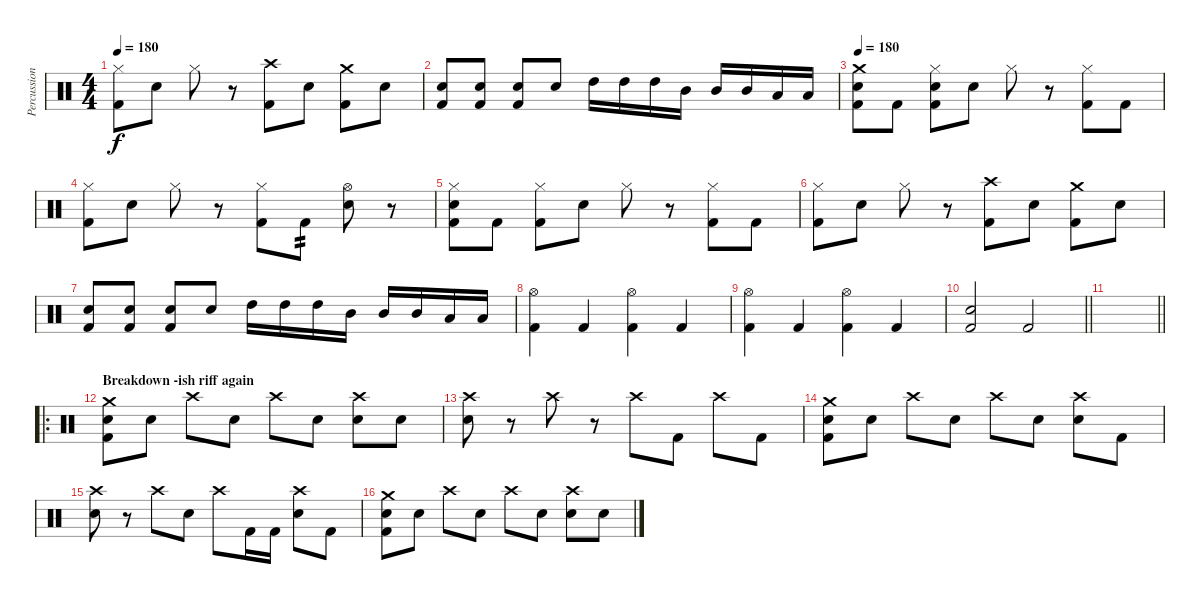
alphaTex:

\track ("Percussion" "Percussion") {instrument percussion}
\staff {score}
\articulation defaults
\ts (4 4)
\tempo 180
\clef neutral
\ks c
("Hi-Hat (closed)" "Kick (hit) 2").8{dy f} "Electric Snare (hit)".8 "Hi-Hat (closed)".8 r.8 ("Crash high (hit)" "Kick (hit) 2").8 "Snare (hit) 2".8 ("Crash medium (hit)" "Kick (hit) 2").8 "Snare (hit) 2".8 |
("Snare (hit) 2" "Kick (hit) 2").8 ("Snare (hit) 2" "Kick (hit) 2").8 ("Snare (hit) 2" "Kick (hit) 2").8 "Electric Snare (hit)".8 "High Tom (hit)".16 "High Tom (hit)".16 "High Tom (hit)".16 "Mid Tom (hit)".16 "Mid Tom (hit)".16 "Mid Tom (hit)".16 "Low Tom (hit)".16 "Low Tom (hit)".16 |
\tempo 180
("Crash medium (hit)" "Snare (hit) 2" "Kick (hit) 2").8 "Kick (hit) 2".8 ("Hi-Hat (closed)" "Snare (hit) 2" "Kick (hit) 2").8 "Electric Snare (hit)".8 "Hi-Hat (closed)".8 r.8 ("Hi-Hat (closed)" "Kick (hit) 2").8 "Kick (hit) 2".8 |
("Hi-Hat (closed)" "Kick (hit) 2").8 "Electric Snare (hit)".8 "Hi-Hat (closed)".8 r.8 ("Hi-Hat (closed)" "Kick (hit) 2").8 "Kick (hit) 2".8{tp 2} ("Hi-Hat (open)" "Electric Snare (hit)").8 r.8 |
("Hi-Hat (closed)" "Snare (hit) 2" "Kick (hit) 2").8 "Kick (hit) 2".8 ("Hi-Hat (closed)" "Kick (hit) 2").8 "Electric Snare (hit)".8 "Hi-Hat (closed)".8 r.8 ("Hi-Hat (closed)" "Kick (hit) 2").8 "Kick (hit) 2".8 |
("Hi-Hat (closed)" "Kick (hit) 2").8 "Electric Snare (hit)".8 "Hi-Hat (closed)".8 r.8 ("Crash high (hit)" "Kick (hit) 2").8 "Snare (hit) 2".8 ("Crash medium (hit)" "Kick (hit) 2").8 "Snare (hit) 2".8 |
("Snare (hit) 2" "Kick (hit) 2").8 ("Snare (hit) 2" "Kick (hit) 2").8 ("Snare (hit) 2" "Kick (hit) 2").8 "Electric Snare (hit)".8 "High Tom (hit)".16 "High Tom (hit)".16 "High Tom (hit)".16 "Mid Tom (hit)".16 "Mid Tom (hit)".16 "Mid Tom (hit)".16 "Low Tom (hit)".16 "Low Tom (hit)".16 |
("Hi-Hat (open)" "Kick (hit) 2").4 "Kick (hit) 2".4 ("Hi-Hat (open)" "Kick (hit) 2").4 "Kick (hit) 2".4 |
("Hi-Hat (open)" "Kick (hit) 2").4 "Kick (hit) 2".4 ("Hi-Hat (open)" "Kick (hit) 2").4 "Kick (hit) 2".4 |
\barLineRight lightlight
("Snare (hit) 2" "Kick (hit) 2").2 "Kick (hit) 2".2 |
\barLineRight lightlight
|
\ro
\section ("" "Breakdown -ish riff again")
("Snare (hit) 2" "Crash medium (hit)" "Kick (hit) 2").8 "Snare (hit) 2".8 "Crash high (hit)".8 "Snare (hit) 2".8 "Crash high (hit)".8 "Snare (hit) 2".8 ("Crash high (hit)" "Snare (hit) 2").8 "Snare (hit) 2".8 |
("Crash high (hit)" "Electric Snare (hit)").8 r.8 "Crash high (hit)".8 r.8 "Crash high (hit)".8 "Kick (hit) 2".8 "Crash high (hit)".8 "Kick (hit) 2".8 |
("Snare (hit) 2" "Crash medium (hit)" "Kick (hit) 2").8 "Snare (hit) 2".8 "Crash high (hit)".8 "Snare (hit) 2".8 "Crash high (hit)".8 "Snare (hit) 2".8 ("Crash high (hit)" "Snare (hit) 2").8 "Kick (hit) 2".8 |
("Crash high (hit)" "Electric Snare (hit)").8 r.8 "Crash high (hit)".8 "Electric Snare (hit)".8 "Crash high (hit)".8 "Kick (hit) 2".16 "Kick (hit) 2".16 ("Crash high (hit)" "Electric Snare (hit)").8 "Kick (hit) 2".8 |
("Snare (hit) 2" "Crash medium (hit)" "Kick (hit) 2").8 "Snare (hit) 2".8 "Crash high (hit)".8 "Snare (hit) 2".8 "Crash high (hit)".8 "Snare (hit) 2".8 ("Crash high (hit)" "Snare (hit) 2").8 "Snare (hit) 2".8
